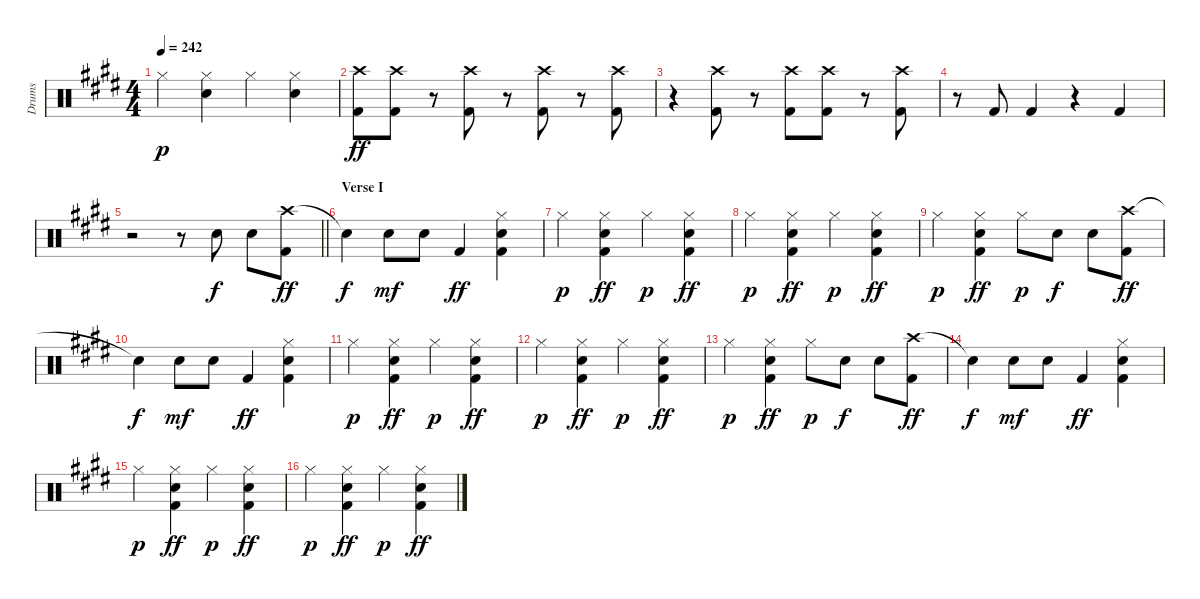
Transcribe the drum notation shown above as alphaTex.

\track ("Drums" "Drums") {instrument percussion}
\staff {score}
\articulation defaults
\ts (4 4)
\tempo 242
\clef neutral
\ks e "Hi-Hat (closed)".4{dy p}
("Hi-Hat (closed)" "Electric Snare (hit)").4 "Hi-Hat (closed)".4 ("Hi-Hat (closed)" "Electric Snare (hit)").4 |
("Crash high (hit)" "Kick (hit) 2").8{dy ff} ("Crash high (hit)" "Kick (hit) 2").8 r.8 ("Crash high (hit)" "Kick (hit) 2").8 r.8 ("Crash high (hit)" "Kick (hit) 2").8 r.8 ("Crash high (hit)" "Kick (hit) 2").8 |
r.4 ("Crash high (hit)" "Kick (hit) 2").8 r.8 ("Crash high (hit)" "Kick (hit) 2").8 ("Crash high (hit)" "Kick (hit) 2").8 r.8 ("Crash high (hit)" "Kick (hit) 2").8 |
r.8 "Kick (hit) 2".8 "Kick (hit) 2".4 r.4 "Kick (hit) 2".4 |
\barLineRight lightlight
r.2 r.8 "Electric Snare (hit)".8{dy f} "Electric Snare (hit)".8 ("Crash high (hit)" "Kick (hit) 2").8{dy ff} |
\section ("" "Verse I")
"Snare (hit)"{t}.4{dy f} "Electric Snare (hit)".8{dy mf} "Electric Snare (hit)".8 "Kick (hit) 2".4{dy ff} ("Hi-Hat (closed)" "Electric Snare (hit)" "Kick (hit) 2").4 |
"Hi-Hat (closed)".4{dy p} ("Hi-Hat (closed)" "Electric Snare (hit)" "Kick (hit) 2").4{dy ff} "Hi-Hat (closed)".4{dy p} ("Hi-Hat (closed)" "Electric Snare (hit)" "Kick (hit) 2").4{dy ff} |
"Hi-Hat (closed)".4{dy p} ("Hi-Hat (closed)" "Electric Snare (hit)" "Kick (hit) 2").4{dy ff} "Hi-Hat (closed)".4{dy p} ("Hi-Hat (closed)" "Electric Snare (hit)" "Kick (hit) 2").4{dy ff} |
"Hi-Hat (closed)".4{dy p} ("Hi-Hat (closed)" "Electric Snare (hit)" "Kick (hit) 2").4{dy ff} "Hi-Hat (closed)".8{dy p} "Electric Snare (hit)".8{dy f} "Electric Snare (hit)".8 ("Crash high (hit)" "Kick (hit) 2").8{dy ff} |
"Snare (hit)"{t}.4{dy f} "Electric Snare (hit)".8{dy mf} "Electric Snare (hit)".8 "Kick (hit) 2".4{dy ff} ("Hi-Hat (closed)" "Electric Snare (hit)" "Kick (hit) 2").4 |
"Hi-Hat (closed)".4{dy p} ("Hi-Hat (closed)" "Electric Snare (hit)" "Kick (hit) 2").4{dy ff} "Hi-Hat (closed)".4{dy p} ("Hi-Hat (closed)" "Electric Snare (hit)" "Kick (hit) 2").4{dy ff} |
"Hi-Hat (closed)".4{dy p} ("Hi-Hat (closed)" "Electric Snare (hit)" "Kick (hit) 2").4{dy ff} "Hi-Hat (closed)".4{dy p} ("Hi-Hat (closed)" "Electric Snare (hit)" "Kick (hit) 2").4{dy ff} |
"Hi-Hat (closed)".4{dy p} ("Hi-Hat (closed)" "Electric Snare (hit)" "Kick (hit) 2").4{dy ff} "Hi-Hat (closed)".8{dy p} "Electric Snare (hit)".8{dy f} "Electric Snare (hit)".8 ("Crash high (hit)" "Kick (hit) 2").8{dy ff} |
"Snare (hit)"{t}.4{dy f} "Electric Snare (hit)".8{dy mf} "Electric Snare (hit)".8 "Kick (hit) 2".4{dy ff} ("Hi-Hat (closed)" "Electric Snare (hit)" "Kick (hit) 2").4 |
"Hi-Hat (closed)".4{dy p} ("Hi-Hat (closed)" "Electric Snare (hit)" "Kick (hit) 2").4{dy ff} "Hi-Hat (closed)".4{dy p} ("Hi-Hat (closed)" "Electric Snare (hit)" "Kick (hit) 2").4{dy ff} |
"Hi-Hat (closed)".4{dy p} ("Hi-Hat (closed)" "Electric Snare (hit)" "Kick (hit) 2").4{dy ff} "Hi-Hat (closed)".4{dy p} ("Hi-Hat (closed)" "Electric Snare (hit)" "Kick (hit) 2").4{dy ff}
